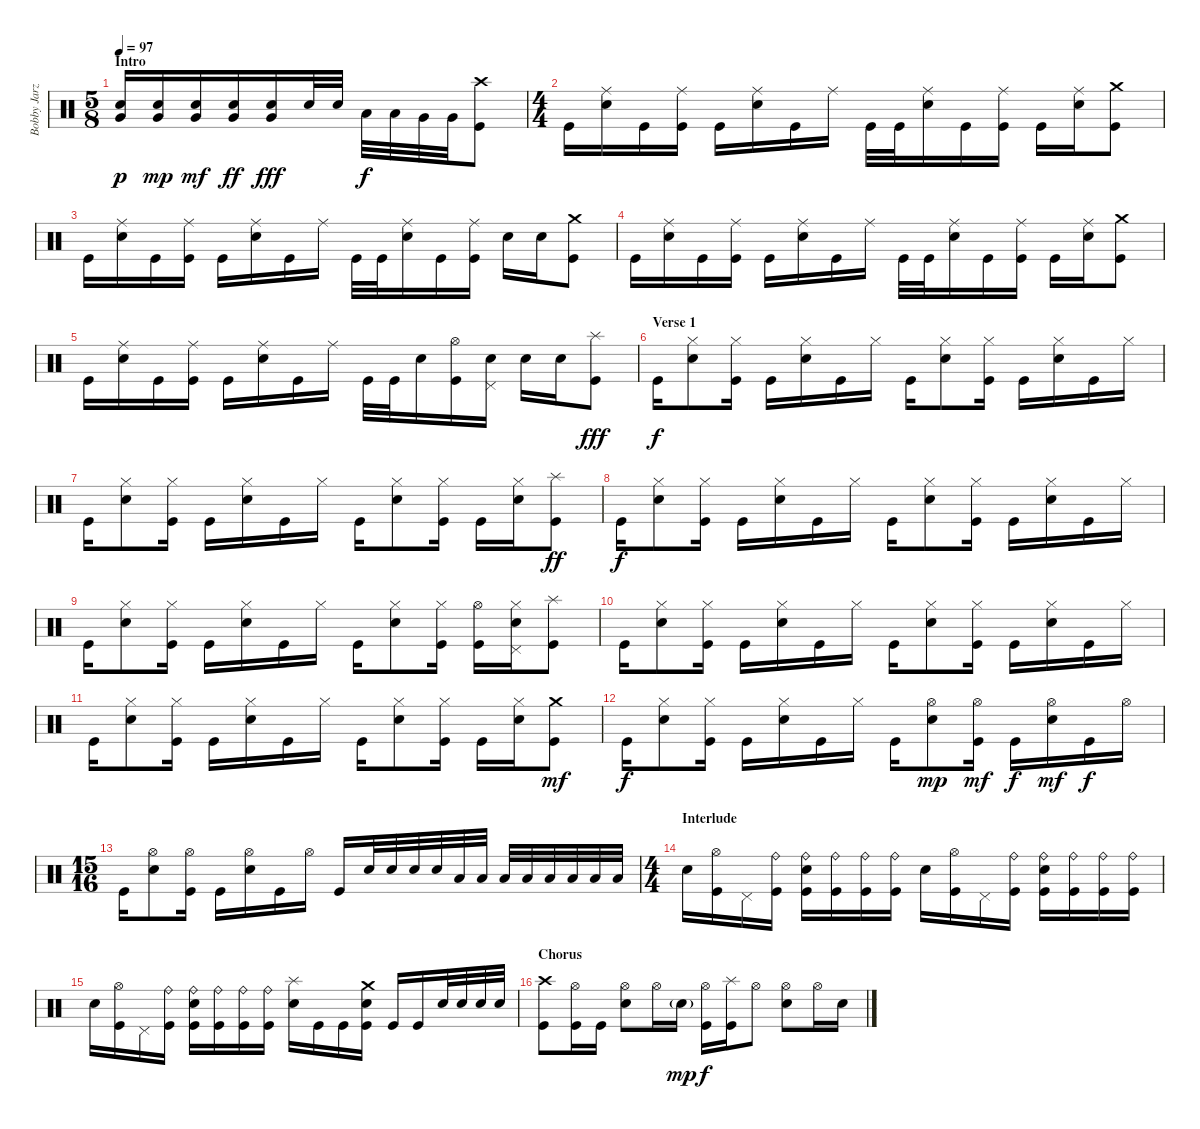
\track ("Bobby Jarzombek" "Bobby Jarz") {instrument percussion}
\staff {score}
\articulation defaults
\ts (5 8)
\section ("" "Intro")
\tempo 97
\clef neutral
\ks c
("Very Low Tom (hit)" "Electric Snare (hit)").16{dy p} ("Very Low Tom (hit)" "Electric Snare (hit)").16{dy mp} ("Very Low Tom (hit)" "Electric Snare (hit)").16{dy mf} ("Very Low Tom (hit)" "Electric Snare (hit)").16{dy ff} ("Very Low Tom (hit)" "Electric Snare (hit)").16{dy fff} "Electric Snare (hit)".32 "Electric Snare (hit)".32 "Low Tom (hit)".32{dy f} "Low Tom (hit)".32 "Very Low Tom (hit)".32 "Very Low Tom (hit)".32 ("Crash high (hit)" "Kick (hit)").8 |
\ts (4 4)
"Kick (hit)".16 ("Ride (middle)" "Electric Snare (hit)").16 "Kick (hit)".16 ("Ride (middle)" "Kick (hit)").16 "Kick (hit)".16 ("Ride (middle)" "Electric Snare (hit)").16 "Kick (hit)".16 "Ride (middle)".16 "Kick (hit)".32 "Kick (hit)".32 ("Ride (middle)" "Electric Snare (hit)").16 "Kick (hit)".16 ("Ride (middle)" "Kick (hit)").16 "Kick (hit)".16 ("Ride (middle)" "Electric Snare (hit)").16 ("Crash medium (hit)" "Kick (hit)").8 |
"Kick (hit)".16 ("Ride (middle)" "Electric Snare (hit)").16 "Kick (hit)".16 ("Ride (middle)" "Kick (hit)").16 "Kick (hit)".16 ("Ride (middle)" "Electric Snare (hit)").16 "Kick (hit)".16 "Ride (middle)".16 "Kick (hit)".32 "Kick (hit)".32 ("Ride (middle)" "Electric Snare (hit)").16 "Kick (hit)".16 ("Ride (middle)" "Kick (hit)").16 "Electric Snare (hit)".16 "Electric Snare (hit)".16 ("Crash medium (hit)" "Kick (hit)").8 |
"Kick (hit)".16 ("Ride (middle)" "Electric Snare (hit)").16 "Kick (hit)".16 ("Ride (middle)" "Kick (hit)").16 "Kick (hit)".16 ("Ride (middle)" "Electric Snare (hit)").16 "Kick (hit)".16 "Ride (middle)".16 "Kick (hit)".32 "Kick (hit)".32 ("Ride (middle)" "Electric Snare (hit)").16 "Kick (hit)".16 ("Ride (middle)" "Kick (hit)").16 "Kick (hit)".16 ("Ride (middle)" "Electric Snare (hit)").16 ("Crash medium (hit)" "Kick (hit)").8 |
"Kick (hit)".16 ("Ride (middle)" "Electric Snare (hit)").16 "Kick (hit)".16 ("Ride (middle)" "Kick (hit)").16 "Kick (hit)".16 ("Ride (middle)" "Electric Snare (hit)").16 "Kick (hit)".16 "Ride (middle)".16 "Kick (hit)".32 "Kick (hit)".32 "Electric Snare (hit)".16 ("Hi-Hat (open)" "Kick (hit)").16 ("Electric Snare (hit)" "Pedal Hi-Hat (hit)").16 "Electric Snare (hit)".16 "Electric Snare (hit)".16 ("Splash (hit)" "Kick (hit)").8{dy fff} |
\section ("" "Verse 1")
"Kick (hit)".16{dy f} ("Hi-Hat (closed)" "Electric Snare (hit)").8 ("Hi-Hat (closed)" "Kick (hit)").16 "Kick (hit)".16 ("Hi-Hat (closed)" "Electric Snare (hit)").16 "Kick (hit)".16 "Hi-Hat (closed)".16 "Kick (hit)".16 ("Hi-Hat (closed)" "Electric Snare (hit)").8 ("Hi-Hat (closed)" "Kick (hit)").16 "Kick (hit)".16 ("Hi-Hat (closed)" "Electric Snare (hit)").16 "Kick (hit)".16 "Hi-Hat (closed)".16 |
"Kick (hit)".16 ("Hi-Hat (closed)" "Electric Snare (hit)").8 ("Hi-Hat (closed)" "Kick (hit)").16 "Kick (hit)".16 ("Hi-Hat (closed)" "Electric Snare (hit)").16 "Kick (hit)".16 "Hi-Hat (closed)".16 "Kick (hit)".16 ("Hi-Hat (closed)" "Electric Snare (hit)").8 ("Hi-Hat (closed)" "Kick (hit)").16 "Kick (hit)".16 ("Hi-Hat (closed)" "Electric Snare (hit)").16 ("Splash (hit)" "Kick (hit)").8{dy ff} |
"Kick (hit)".16{dy f} ("Hi-Hat (closed)" "Electric Snare (hit)").8 ("Hi-Hat (closed)" "Kick (hit)").16 "Kick (hit)".16 ("Hi-Hat (closed)" "Electric Snare (hit)").16 "Kick (hit)".16 "Hi-Hat (closed)".16 "Kick (hit)".16 ("Hi-Hat (closed)" "Electric Snare (hit)").8 ("Hi-Hat (closed)" "Kick (hit)").16 "Kick (hit)".16 ("Hi-Hat (closed)" "Electric Snare (hit)").16 "Kick (hit)".16 "Hi-Hat (closed)".16 |
"Kick (hit)".16 ("Hi-Hat (closed)" "Electric Snare (hit)").8 ("Hi-Hat (closed)" "Kick (hit)").16 "Kick (hit)".16 ("Hi-Hat (closed)" "Electric Snare (hit)").16 "Kick (hit)".16 "Hi-Hat (closed)".16 "Kick (hit)".16 ("Hi-Hat (closed)" "Electric Snare (hit)").8 ("Hi-Hat (closed)" "Kick (hit)").16 ("Hi-Hat (open)" "Kick (hit)").16 ("Hi-Hat (closed)" "Electric Snare (hit)" "Pedal Hi-Hat (hit)").16 ("Splash (hit)" "Kick (hit)").8 |
"Kick (hit)".16 ("Hi-Hat (closed)" "Electric Snare (hit)").8 ("Hi-Hat (closed)" "Kick (hit)").16 "Kick (hit)".16 ("Hi-Hat (closed)" "Electric Snare (hit)").16 "Kick (hit)".16 "Hi-Hat (closed)".16 "Kick (hit)".16 ("Hi-Hat (closed)" "Electric Snare (hit)").8 ("Hi-Hat (closed)" "Kick (hit)").16 "Kick (hit)".16 ("Hi-Hat (closed)" "Electric Snare (hit)").16 "Kick (hit)".16 "Hi-Hat (closed)".16 |
"Kick (hit)".16 ("Hi-Hat (closed)" "Electric Snare (hit)").8 ("Hi-Hat (closed)" "Kick (hit)").16 "Kick (hit)".16 ("Hi-Hat (closed)" "Electric Snare (hit)").16 "Kick (hit)".16 "Hi-Hat (closed)".16 "Kick (hit)".16 ("Hi-Hat (closed)" "Electric Snare (hit)").8 ("Hi-Hat (closed)" "Kick (hit)").16 "Kick (hit)".16 ("Hi-Hat (closed)" "Electric Snare (hit)").16 ("Crash medium (hit)" "Kick (hit)").8{dy mf} |
"Kick (hit)".16{dy f} ("Hi-Hat (closed)" "Electric Snare (hit)").8 ("Hi-Hat (closed)" "Kick (hit)").16 "Kick (hit)".16 ("Hi-Hat (closed)" "Electric Snare (hit)").16 "Kick (hit)".16 "Hi-Hat (closed)".16 "Kick (hit)".16 ("Hi-Hat (open)" "Electric Snare (hit)").8{dy mp} ("Hi-Hat (open)" "Kick (hit)").16{dy mf} "Kick (hit)".16{dy f} ("Hi-Hat (open)" "Electric Snare (hit)").16{dy mf} "Kick (hit)".16{dy f} "Hi-Hat (open)".16 |
\ts (15 16)
"Kick (hit)".16 ("Hi-Hat (open)" "Electric Snare (hit)").8 ("Hi-Hat (open)" "Kick (hit)").16 "Kick (hit)".16 ("Hi-Hat (open)" "Electric Snare (hit)").16 "Kick (hit)".16 "Hi-Hat (open)".16 "Kick (hit)".16 "Electric Snare (hit)".32 "Electric Snare (hit)".32 "Electric Snare (hit)".32 "Electric Snare (hit)".32 "Low Tom (hit)".32 "Low Tom (hit)".32 "Low Tom (hit)".32 "Low Tom (hit)".32 "Low Tom (hit)".32 "Low Tom (hit)".32 "Low Tom (hit)".32 "Low Tom (hit)".32 |
\ts (4 4)
\section ("" "Interlude")
"Electric Snare (hit)".16 ("Hi-Hat (open)" "Kick (hit)").16 "Pedal Hi-Hat (hit)".16 ("Ride (bell)" "Kick (hit)").16 ("Ride (bell)" "Electric Snare (hit)" "Kick (hit)").16 ("Ride (bell)" "Kick (hit)").16 ("Ride (bell)" "Kick (hit)").16 ("Ride (bell)" "Kick (hit)").16 "Electric Snare (hit)".16 ("Hi-Hat (open)" "Kick (hit)").16 "Pedal Hi-Hat (hit)".16 ("Ride (bell)" "Kick (hit)").16 ("Ride (bell)" "Electric Snare (hit)" "Kick (hit)").16 ("Ride (bell)" "Kick (hit)").16 ("Ride (bell)" "Kick (hit)").16 ("Ride (bell)" "Kick (hit)").16 |
"Electric Snare (hit)".16 ("Hi-Hat (open)" "Kick (hit)").16 "Pedal Hi-Hat (hit)".16 ("Ride (bell)" "Kick (hit)").16 ("Ride (bell)" "Electric Snare (hit)" "Kick (hit)").16 ("Ride (bell)" "Kick (hit)").16 ("Ride (bell)" "Kick (hit)").16 ("Ride (bell)" "Kick (hit)").16 ("Splash (hit)" "Electric Snare (hit)").16 "Kick (hit)".16 "Kick (hit)".16 ("Crash medium (hit)" "Electric Snare (hit)" "Kick (hit)").16 "Kick (hit)".16 "Kick (hit)".16 "Electric Snare (hit)".32 "Electric Snare (hit)".32 "Electric Snare (hit)".32 "Electric Snare (hit)".32 |
\section ("" "Chorus")
("Crash high (hit)" "Kick (hit)").8 ("Hi-Hat (open)" "Kick (hit)").16 "Kick (hit)".16 ("Hi-Hat (open)" "Electric Snare (hit)").8 "Hi-Hat (open)".16 "Electric Snare (hit)"{g}.16{dy mp} ("Hi-Hat (open)" "Kick (hit)").16{dy f} ("Splash (hit)" "Kick (hit)").16 "Hi-Hat (open)".8 ("Hi-Hat (open)" "Electric Snare (hit)").8 "Hi-Hat (open)".16 "Electric Snare (hit)".16
